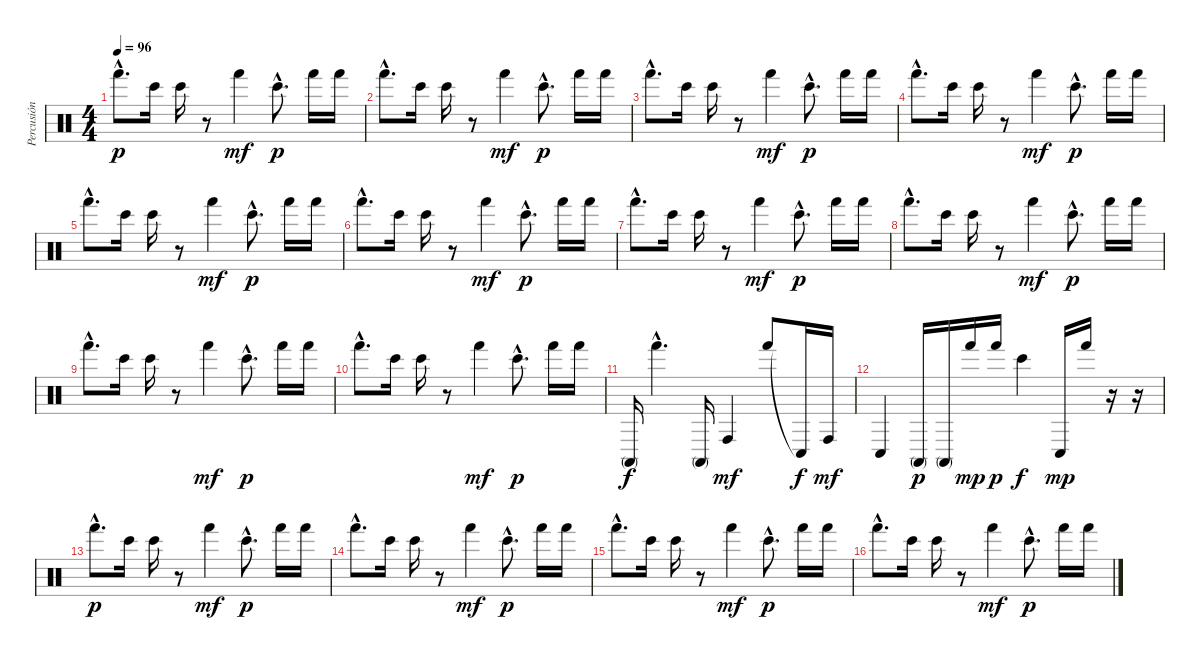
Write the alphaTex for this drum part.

\track ("Percusión" "Percusión") {instrument percussion}
\staff {score}
\articulation defaults
\ts (4 4)
\tempo 96
\clef neutral
\ks c "Hand (hit)"{hac}.8{d dy p} "Bongo High (hit)".16 "Bongo High (hit)".16
r.8 "Hand (hit)".4{dy mf} "Bongo High (hit)"{hac}.8{d dy p} "Hand (hit)".16 "Hand (hit)".16 |
"Hand (hit)"{hac}.8{d} "Bongo High (hit)".16 "Bongo High (hit)".16 r.8 "Hand (hit)".4{dy mf} "Bongo High (hit)"{hac}.8{d dy p} "Hand (hit)".16 "Hand (hit)".16 |
"Hand (hit)"{hac}.8{d} "Bongo High (hit)".16 "Bongo High (hit)".16 r.8 "Hand (hit)".4{dy mf} "Bongo High (hit)"{hac}.8{d dy p} "Hand (hit)".16 "Hand (hit)".16 |
"Hand (hit)"{hac}.8{d} "Bongo High (hit)".16 "Bongo High (hit)".16 r.8 "Hand (hit)".4{dy mf} "Bongo High (hit)"{hac}.8{d dy p} "Hand (hit)".16 "Hand (hit)".16 |
"Hand (hit)"{hac}.8{d} "Bongo High (hit)".16 "Bongo High (hit)".16 r.8 "Hand (hit)".4{dy mf} "Bongo High (hit)"{hac}.8{d dy p} "Hand (hit)".16 "Hand (hit)".16 |
"Hand (hit)"{hac}.8{d} "Bongo High (hit)".16 "Bongo High (hit)".16 r.8 "Hand (hit)".4{dy mf} "Bongo High (hit)"{hac}.8{d dy p} "Hand (hit)".16 "Hand (hit)".16 |
"Hand (hit)"{hac}.8{d} "Bongo High (hit)".16 "Bongo High (hit)".16 r.8 "Hand (hit)".4{dy mf} "Bongo High (hit)"{hac}.8{d dy p} "Hand (hit)".16 "Hand (hit)".16 |
"Hand (hit)"{hac}.8{d} "Bongo High (hit)".16 "Bongo High (hit)".16 r.8 "Hand (hit)".4{dy mf} "Bongo High (hit)"{hac}.8{d dy p} "Hand (hit)".16 "Hand (hit)".16 |
"Hand (hit)"{hac}.8{d} "Bongo High (hit)".16 "Bongo High (hit)".16 r.8 "Hand (hit)".4{dy mf} "Bongo High (hit)"{hac}.8{d dy p} "Hand (hit)".16 "Hand (hit)".16 |
"Hand (hit)"{hac}.8{d} "Bongo High (hit)".16 "Bongo High (hit)".16 r.8 "Hand (hit)".4{dy mf} "Bongo High (hit)"{hac}.8{d dy p} "Hand (hit)".16 "Hand (hit)".16 |
"Conga high (mute)".16{dy f} "Hand (hit)"{hac}.4{d} "Conga high (mute)".16 "Conga high (hit)".4{dy mf} "Hand (hit)".8 "Conga low (hit)"{t}.16{dy f} "Conga high (hit)".16{dy mf} |
"Conga low (hit)".4 "Conga high (mute)".16{dy p} "Conga high (mute)".16 "Hand (hit)".16{dy mp} "Hand (hit)".16{dy p} "Bongo High (hit)".4{dy f} "Conga low (hit)".16{dy mp} "Hand (hit)".16 r.16 r.16 |
"Hand (hit)"{hac}.8{d dy p} "Bongo High (hit)".16 "Bongo High (hit)".16 r.8 "Hand (hit)".4{dy mf} "Bongo High (hit)"{hac}.8{d dy p} "Hand (hit)".16 "Hand (hit)".16 |
"Hand (hit)"{hac}.8{d} "Bongo High (hit)".16 "Bongo High (hit)".16 r.8 "Hand (hit)".4{dy mf} "Bongo High (hit)"{hac}.8{d dy p} "Hand (hit)".16 "Hand (hit)".16 |
"Hand (hit)"{hac}.8{d} "Bongo High (hit)".16 "Bongo High (hit)".16 r.8 "Hand (hit)".4{dy mf} "Bongo High (hit)"{hac}.8{d dy p} "Hand (hit)".16 "Hand (hit)".16 |
"Hand (hit)"{hac}.8{d} "Bongo High (hit)".16 "Bongo High (hit)".16 r.8 "Hand (hit)".4{dy mf} "Bongo High (hit)"{hac}.8{d dy p} "Hand (hit)".16 "Hand (hit)".16
